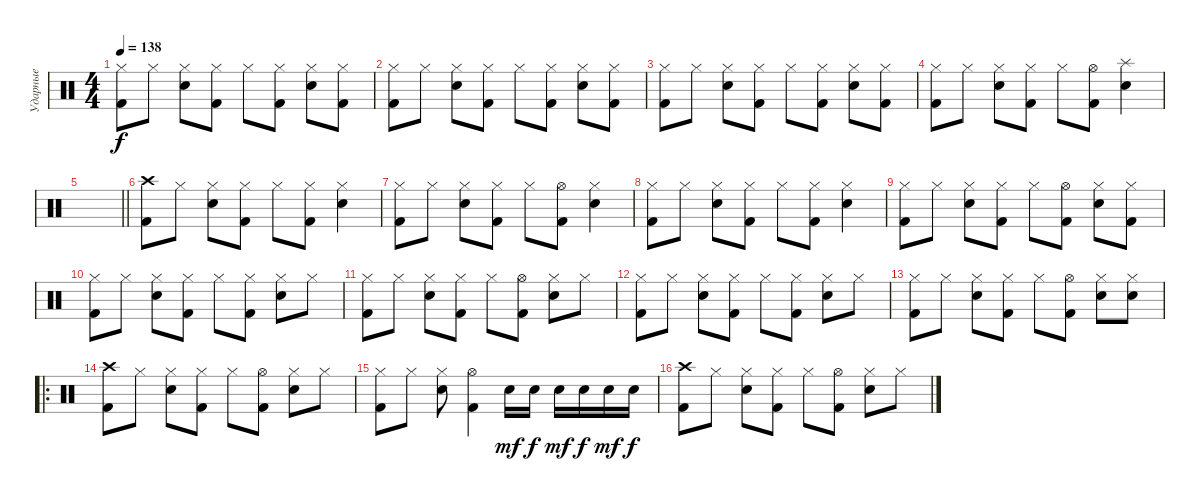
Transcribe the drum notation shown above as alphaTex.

\track ("Ударные" "Ударные") {instrument percussion}
\staff {score}
\articulation defaults
\ts (4 4)
\tempo 138
\clef neutral
\ks c
("Hi-Hat (closed)" "Kick (hit) 2").8{dy f} "Hi-Hat (closed)".8 ("Hi-Hat (closed)" "Snare (hit) 2").8 ("Hi-Hat (closed)" "Kick (hit) 2").8 "Hi-Hat (closed)".8 ("Hi-Hat (closed)" "Kick (hit) 2").8 ("Hi-Hat (closed)" "Snare (hit) 2").8 ("Hi-Hat (closed)" "Kick (hit) 2").8 |
("Hi-Hat (closed)" "Kick (hit) 2").8 "Hi-Hat (closed)".8 ("Hi-Hat (closed)" "Snare (hit) 2").8 ("Hi-Hat (closed)" "Kick (hit) 2").8 "Hi-Hat (closed)".8 ("Hi-Hat (closed)" "Kick (hit) 2").8 ("Hi-Hat (closed)" "Snare (hit) 2").8 ("Hi-Hat (closed)" "Kick (hit) 2").8 |
("Hi-Hat (closed)" "Kick (hit) 2").8 "Hi-Hat (closed)".8 ("Hi-Hat (closed)" "Snare (hit) 2").8 ("Hi-Hat (closed)" "Kick (hit) 2").8 "Hi-Hat (closed)".8 ("Hi-Hat (closed)" "Kick (hit) 2").8 ("Hi-Hat (closed)" "Snare (hit) 2").8 ("Hi-Hat (closed)" "Kick (hit) 2").8 |
("Hi-Hat (closed)" "Kick (hit) 2").8 "Hi-Hat (closed)".8 ("Hi-Hat (closed)" "Snare (hit) 2").8 ("Hi-Hat (closed)" "Kick (hit) 2").8 "Hi-Hat (closed)".8 ("Hi-Hat (open)" "Kick (hit) 2").8 ("Splash (hit)" "Snare (hit) 2").4 |
\barLineRight lightlight
|
("Crash high (hit)" "Kick (hit) 2").8 "Hi-Hat (closed)".8 ("Hi-Hat (closed)" "Snare (hit) 2").8 ("Hi-Hat (closed)" "Kick (hit) 2").8 "Hi-Hat (closed)".8 ("Hi-Hat (closed)" "Kick (hit) 2").8 ("Hi-Hat (closed)" "Snare (hit) 2").4 |
("Hi-Hat (closed)" "Kick (hit) 2").8 "Hi-Hat (closed)".8 ("Hi-Hat (closed)" "Snare (hit) 2").8 ("Hi-Hat (closed)" "Kick (hit) 2").8 "Hi-Hat (closed)".8 ("Hi-Hat (open)" "Kick (hit) 2").8 ("Hi-Hat (closed)" "Snare (hit) 2").4 |
("Hi-Hat (closed)" "Kick (hit) 2").8 "Hi-Hat (closed)".8 ("Hi-Hat (closed)" "Snare (hit) 2").8 ("Hi-Hat (closed)" "Kick (hit) 2").8 "Hi-Hat (closed)".8 ("Hi-Hat (closed)" "Kick (hit) 2").8 ("Hi-Hat (closed)" "Snare (hit) 2").4 |
("Hi-Hat (closed)" "Kick (hit) 2").8 "Hi-Hat (closed)".8 ("Hi-Hat (closed)" "Snare (hit) 2").8 ("Hi-Hat (closed)" "Kick (hit) 2").8 "Hi-Hat (closed)".8 ("Hi-Hat (open)" "Kick (hit) 2").8 ("Hi-Hat (closed)" "Snare (hit) 2").8 ("Hi-Hat (closed)" "Kick (hit) 2").8 |
("Hi-Hat (closed)" "Kick (hit) 2").8 "Hi-Hat (closed)".8 ("Hi-Hat (closed)" "Snare (hit) 2").8 ("Hi-Hat (closed)" "Kick (hit) 2").8 "Hi-Hat (closed)".8 ("Hi-Hat (closed)" "Kick (hit) 2").8 ("Hi-Hat (closed)" "Snare (hit) 2").8 "Hi-Hat (closed)".8 |
("Hi-Hat (closed)" "Kick (hit) 2").8 "Hi-Hat (closed)".8 ("Hi-Hat (closed)" "Snare (hit) 2").8 ("Hi-Hat (closed)" "Kick (hit) 2").8 "Hi-Hat (closed)".8 ("Hi-Hat (open)" "Kick (hit) 2").8 ("Hi-Hat (closed)" "Snare (hit) 2").8 "Hi-Hat (closed)".8 |
("Hi-Hat (closed)" "Kick (hit) 2").8 "Hi-Hat (closed)".8 ("Hi-Hat (closed)" "Snare (hit) 2").8 ("Hi-Hat (closed)" "Kick (hit) 2").8 "Hi-Hat (closed)".8 ("Hi-Hat (closed)" "Kick (hit) 2").8 ("Hi-Hat (closed)" "Snare (hit) 2").8 "Hi-Hat (closed)".8 |
("Hi-Hat (closed)" "Kick (hit) 2").8 "Hi-Hat (closed)".8 ("Hi-Hat (closed)" "Snare (hit) 2").8 ("Hi-Hat (closed)" "Kick (hit) 2").8 "Hi-Hat (closed)".8 ("Hi-Hat (open)" "Kick (hit) 2").8 ("Hi-Hat (closed)" "Snare (hit) 2").8 ("Hi-Hat (closed)" "Snare (hit) 2").8 |
\ro
("Crash high (hit)" "Kick (hit) 2").8 "Hi-Hat (closed)".8 ("Hi-Hat (closed)" "Snare (hit) 2").8 ("Hi-Hat (closed)" "Kick (hit) 2").8 "Hi-Hat (closed)".8 ("Hi-Hat (open)" "Kick (hit) 2").8 ("Hi-Hat (closed)" "Snare (hit) 2").8 "Hi-Hat (closed)".8 |
("Hi-Hat (closed)" "Kick (hit) 2").8 "Hi-Hat (closed)".8 ("Hi-Hat (closed)" "Snare (hit) 2").8 ("Hi-Hat (open)" "Kick (hit) 2").4 "Snare (hit) 2".16{dy mf} "Snare (hit) 2".16{dy f} "Snare (hit) 2".16{dy mf} "Snare (hit) 2".16{dy f} "Snare (hit) 2".16{dy mf} "Snare (hit) 2".16{dy f} |
("Crash high (hit)" "Kick (hit) 2").8 "Hi-Hat (closed)".8 ("Hi-Hat (closed)" "Snare (hit) 2").8 ("Hi-Hat (closed)" "Kick (hit) 2").8 "Hi-Hat (closed)".8 ("Hi-Hat (open)" "Kick (hit) 2").8 ("Hi-Hat (closed)" "Snare (hit) 2").8 "Hi-Hat (closed)".8
